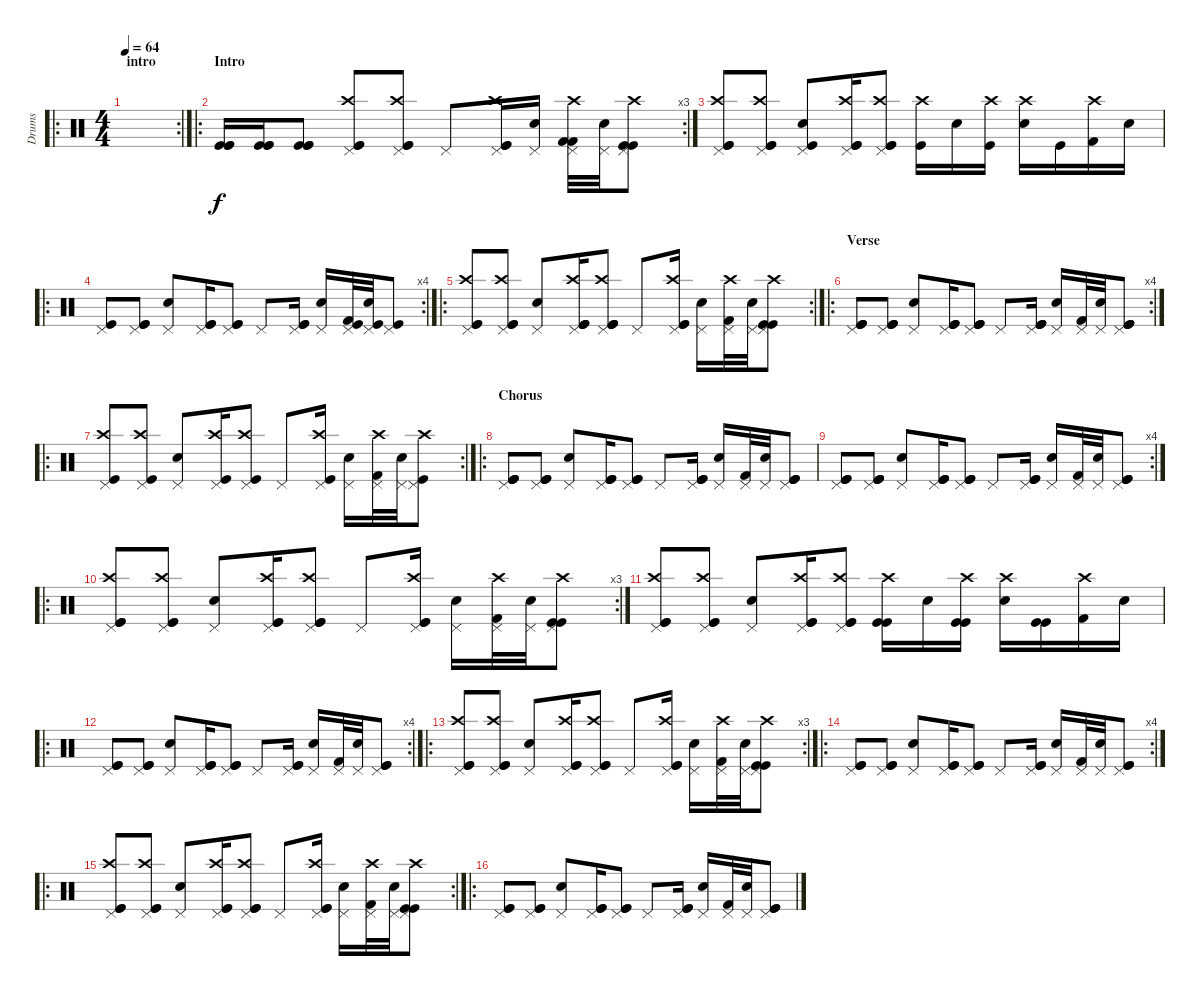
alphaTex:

\track ("Drums" "Drums") {instrument percussion}
\staff {score}
\articulation defaults
\ro
\rc 2
\ts (4 4)
\section ("" "intro")
\tempo 64
\clef neutral
\ks c
|
\ro
\rc 3
\section ("" "Intro")
("Kick (hit)" "Kick (hit)" "Kick (hit)").16 ("Kick (hit)" "Kick (hit)" "Kick (hit)").16 ("Kick (hit)" "Kick (hit)" "Kick (hit)").8 ("Kick (hit)" "Kick (hit)" "Crash high (hit)" "Pedal Hi-Hat (hit)").8 ("Kick (hit)" "Kick (hit)" "Crash high (hit)" "Pedal Hi-Hat (hit)").8 "Pedal Hi-Hat (hit)".8 ("Kick (hit)" "Kick (hit)" "Crash high (hit)" "Pedal Hi-Hat (hit)").16 ("Snare (hit) 2" "Pedal Hi-Hat (hit)").16 ("Kick (hit) 2" "Kick (hit) 2" "Crash high (hit)" "Pedal Hi-Hat (hit)").32 ("Snare (hit) 2" "Pedal Hi-Hat (hit)").32 ("Kick (hit)" "Kick (hit)" "Crash high (hit)" "Pedal Hi-Hat (hit)").8 |
("Kick (hit)" "Crash high (hit)" "Kick (hit)" "Pedal Hi-Hat (hit)").8 ("Kick (hit)" "Crash high (hit)" "Kick (hit)" "Pedal Hi-Hat (hit)").8 ("Snare (hit) 2" "Kick (hit)" "Pedal Hi-Hat (hit)").8 ("Kick (hit)" "Crash high (hit)" "Kick (hit)" "Pedal Hi-Hat (hit)").16 ("Kick (hit)" "Crash high (hit)" "Kick (hit)" "Pedal Hi-Hat (hit)").8 ("Kick (hit)" "Crash high (hit)").16 "Snare (hit) 2".16 ("Kick (hit)" "Crash high (hit)").16 ("Snare (hit) 2" "Crash high (hit)").16 "Kick (hit)".16 ("Kick (hit) 2" "Crash high (hit)").16 "Snare (hit) 2".16 |
\ro
\rc 4
("Kick (hit)" "Pedal Hi-Hat (hit)").8 ("Kick (hit)" "Kick (hit)" "Pedal Hi-Hat (hit)").8 ("Snare (hit) 2" "Pedal Hi-Hat (hit)").8 ("Kick (hit)" "Kick (hit)" "Pedal Hi-Hat (hit)").16 ("Kick (hit)" "Kick (hit)" "Pedal Hi-Hat (hit)").8 "Pedal Hi-Hat (hit)".8 ("Kick (hit)" "Kick (hit)" "Pedal Hi-Hat (hit)").16 ("Snare (hit) 2" "Pedal Hi-Hat (hit)").16 ("Kick (hit) 2" "Kick (hit)" "Pedal Hi-Hat (hit)").32 ("Snare (hit) 2" "Kick (hit)" "Pedal Hi-Hat (hit)").32 ("Kick (hit)" "Pedal Hi-Hat (hit)").8 |
\ro
\rc 2
("Kick (hit)" "Crash high (hit)" "Kick (hit)" "Pedal Hi-Hat (hit)").8 ("Kick (hit)" "Crash high (hit)" "Kick (hit)" "Pedal Hi-Hat (hit)").8 ("Snare (hit) 2" "Pedal Hi-Hat (hit)").8 ("Kick (hit)" "Kick (hit)" "Crash high (hit)" "Kick (hit)" "Pedal Hi-Hat (hit)").16 ("Kick (hit)" "Kick (hit)" "Crash high (hit)" "Kick (hit)" "Pedal Hi-Hat (hit)").8 "Pedal Hi-Hat (hit)".8 ("Kick (hit)" "Crash high (hit)" "Kick (hit)" "Pedal Hi-Hat (hit)").16 ("Snare (hit) 2" "Pedal Hi-Hat (hit)").16 ("Kick (hit) 2" "Crash high (hit)" "Pedal Hi-Hat (hit)").32 ("Snare (hit) 2" "Pedal Hi-Hat (hit)").32 ("Kick (hit)" "Crash high (hit)" "Kick (hit)" "Pedal Hi-Hat (hit)").8 |
\ro
\rc 4
\section ("" "Verse")
("Kick (hit)" "Kick (hit)" "Kick (hit)" "Pedal Hi-Hat (hit)").8 ("Kick (hit)" "Kick (hit)" "Kick (hit)" "Pedal Hi-Hat (hit)").8 ("Snare (hit) 2" "Pedal Hi-Hat (hit)").8 ("Kick (hit)" "Kick (hit)" "Kick (hit)" "Pedal Hi-Hat (hit)").16 ("Kick (hit)" "Kick (hit)" "Kick (hit)" "Pedal Hi-Hat (hit)").8 "Pedal Hi-Hat (hit)".8 ("Kick (hit)" "Kick (hit)" "Kick (hit)" "Pedal Hi-Hat (hit)").16 ("Snare (hit) 2" "Pedal Hi-Hat (hit)").16 ("Kick (hit) 2" "Pedal Hi-Hat (hit)").32 ("Snare (hit) 2" "Pedal Hi-Hat (hit)").32 ("Kick (hit)" "Kick (hit)" "Kick (hit)" "Pedal Hi-Hat (hit)").8 |
\ro
\rc 2
("Kick (hit)" "Crash high (hit)" "Pedal Hi-Hat (hit)").8 ("Kick (hit)" "Crash high (hit)" "Pedal Hi-Hat (hit)").8 ("Snare (hit) 2" "Pedal Hi-Hat (hit)").8 ("Kick (hit)" "Crash high (hit)" "Pedal Hi-Hat (hit)").16 ("Kick (hit)" "Crash high (hit)" "Pedal Hi-Hat (hit)").8 "Pedal Hi-Hat (hit)".8 ("Kick (hit)" "Crash high (hit)" "Pedal Hi-Hat (hit)").16 ("Snare (hit) 2" "Pedal Hi-Hat (hit)").16 ("Kick (hit) 2" "Crash high (hit)" "Pedal Hi-Hat (hit)").32 ("Snare (hit) 2" "Pedal Hi-Hat (hit)").32 ("Kick (hit)" "Crash high (hit)" "Pedal Hi-Hat (hit)").8 |
\ro
\section ("" "Chorus")
("Kick (hit)" "Kick (hit)" "Kick (hit)" "Pedal Hi-Hat (hit)").8 ("Kick (hit)" "Kick (hit)" "Kick (hit)" "Pedal Hi-Hat (hit)").8 ("Snare (hit) 2" "Pedal Hi-Hat (hit)").8 ("Kick (hit)" "Kick (hit)" "Kick (hit)" "Pedal Hi-Hat (hit)").16 ("Kick (hit)" "Kick (hit)" "Kick (hit)" "Pedal Hi-Hat (hit)").8 "Pedal Hi-Hat (hit)".8 ("Kick (hit)" "Kick (hit)" "Kick (hit)" "Pedal Hi-Hat (hit)").16 ("Snare (hit) 2" "Pedal Hi-Hat (hit)").16 ("Kick (hit) 2" "Pedal Hi-Hat (hit)").32 ("Snare (hit) 2" "Pedal Hi-Hat (hit)").32 ("Kick (hit)" "Kick (hit)" "Kick (hit)" "Pedal Hi-Hat (hit)").8 |
\rc 4
("Kick (hit)" "Kick (hit)" "Kick (hit)" "Pedal Hi-Hat (hit)").8 ("Kick (hit)" "Kick (hit)" "Kick (hit)" "Pedal Hi-Hat (hit)").8 ("Snare (hit) 2" "Pedal Hi-Hat (hit)").8 ("Kick (hit)" "Kick (hit)" "Kick (hit)" "Pedal Hi-Hat (hit)").16 ("Kick (hit)" "Kick (hit)" "Kick (hit)" "Pedal Hi-Hat (hit)").8 "Pedal Hi-Hat (hit)".8 ("Kick (hit)" "Kick (hit)" "Kick (hit)" "Pedal Hi-Hat (hit)").16 ("Snare (hit) 2" "Pedal Hi-Hat (hit)").16 ("Kick (hit) 2" "Pedal Hi-Hat (hit)").32 ("Snare (hit) 2" "Pedal Hi-Hat (hit)").32 ("Kick (hit)" "Kick (hit)" "Kick (hit)" "Pedal Hi-Hat (hit)").8 |
\ro
\rc 3
("Kick (hit)" "Kick (hit)" "Crash high (hit)" "Pedal Hi-Hat (hit)").8 ("Kick (hit)" "Kick (hit)" "Crash high (hit)" "Pedal Hi-Hat (hit)").8 ("Snare (hit) 2" "Pedal Hi-Hat (hit)").8 ("Kick (hit)" "Kick (hit)" "Crash high (hit)" "Pedal Hi-Hat (hit)").16 ("Kick (hit)" "Kick (hit)" "Crash high (hit)" "Pedal Hi-Hat (hit)").8 "Pedal Hi-Hat (hit)".8 ("Kick (hit)" "Kick (hit)" "Crash high (hit)" "Pedal Hi-Hat (hit)").16 ("Snare (hit) 2" "Pedal Hi-Hat (hit)").16 ("Kick (hit) 2" "Crash high (hit)" "Pedal Hi-Hat (hit)").32 ("Snare (hit) 2" "Pedal Hi-Hat (hit)").32 ("Kick (hit)" "Kick (hit)" "Crash high (hit)" "Pedal Hi-Hat (hit)").8 |
("Kick (hit)" "Kick (hit)" "Crash high (hit)" "Pedal Hi-Hat (hit)").8 ("Kick (hit)" "Kick (hit)" "Crash high (hit)" "Pedal Hi-Hat (hit)").8 ("Snare (hit) 2" "Pedal Hi-Hat (hit)").8 ("Kick (hit)" "Kick (hit)" "Crash high (hit)" "Pedal Hi-Hat (hit)").16 ("Kick (hit)" "Kick (hit)" "Crash high (hit)" "Pedal Hi-Hat (hit)").8 ("Kick (hit)" "Kick (hit)" "Crash high (hit)").16 "Snare (hit) 2".16 ("Kick (hit)" "Kick (hit)" "Crash high (hit)").16 ("Snare (hit) 2" "Crash high (hit)").16 ("Kick (hit)" "Kick (hit)").16 ("Kick (hit) 2" "Crash high (hit)").16 "Snare (hit) 2".16 |
\ro
\rc 4
("Kick (hit)" "Kick (hit)" "Pedal Hi-Hat (hit)").8 ("Kick (hit)" "Kick (hit)" "Pedal Hi-Hat (hit)").8 ("Snare (hit) 2" "Pedal Hi-Hat (hit)").8 ("Kick (hit)" "Kick (hit)" "Pedal Hi-Hat (hit)").16 ("Kick (hit)" "Kick (hit)" "Pedal Hi-Hat (hit)").8 "Pedal Hi-Hat (hit)".8 ("Kick (hit)" "Kick (hit)" "Pedal Hi-Hat (hit)").16 ("Snare (hit) 2" "Pedal Hi-Hat (hit)").16 ("Kick (hit) 2" "Pedal Hi-Hat (hit)").32 ("Snare (hit) 2" "Pedal Hi-Hat (hit)").32 ("Kick (hit)" "Kick (hit)" "Pedal Hi-Hat (hit)").8 |
\ro
\rc 3
("Kick (hit)" "Kick (hit)" "Crash high (hit)" "Pedal Hi-Hat (hit)").8 ("Kick (hit)" "Kick (hit)" "Crash high (hit)" "Pedal Hi-Hat (hit)").8 ("Snare (hit) 2" "Pedal Hi-Hat (hit)").8 ("Kick (hit)" "Kick (hit)" "Crash high (hit)" "Pedal Hi-Hat (hit)").16 ("Kick (hit)" "Kick (hit)" "Crash high (hit)" "Pedal Hi-Hat (hit)").8 "Pedal Hi-Hat (hit)".8 ("Kick (hit)" "Kick (hit)" "Crash high (hit)" "Pedal Hi-Hat (hit)").16 ("Snare (hit) 2" "Pedal Hi-Hat (hit)").16 ("Kick (hit) 2" "Crash high (hit)" "Pedal Hi-Hat (hit)").32 ("Snare (hit) 2" "Pedal Hi-Hat (hit)").32 ("Kick (hit)" "Kick (hit)" "Crash high (hit)" "Pedal Hi-Hat (hit)").8 |
\ro
\rc 4
("Kick (hit)" "Kick (hit)" "Pedal Hi-Hat (hit)").8 ("Kick (hit)" "Kick (hit)" "Pedal Hi-Hat (hit)").8 ("Snare (hit) 2" "Pedal Hi-Hat (hit)").8 ("Kick (hit)" "Kick (hit)" "Pedal Hi-Hat (hit)").16 ("Kick (hit)" "Kick (hit)" "Pedal Hi-Hat (hit)").8 "Pedal Hi-Hat (hit)".8 ("Kick (hit)" "Kick (hit)" "Pedal Hi-Hat (hit)").16 ("Snare (hit) 2" "Pedal Hi-Hat (hit)").16 ("Kick (hit) 2" "Pedal Hi-Hat (hit)").32 ("Snare (hit) 2" "Pedal Hi-Hat (hit)").32 ("Kick (hit)" "Kick (hit)" "Pedal Hi-Hat (hit)").8 |
\ro
\rc 2
("Kick (hit)" "Kick (hit)" "Crash high (hit)" "Pedal Hi-Hat (hit)").8 ("Kick (hit)" "Kick (hit)" "Crash high (hit)" "Pedal Hi-Hat (hit)").8 ("Snare (hit) 2" "Pedal Hi-Hat (hit)").8 ("Kick (hit)" "Kick (hit)" "Crash high (hit)" "Pedal Hi-Hat (hit)").16 ("Kick (hit)" "Kick (hit)" "Crash high (hit)" "Pedal Hi-Hat (hit)").8 "Pedal Hi-Hat (hit)".8 ("Kick (hit)" "Kick (hit)" "Crash high (hit)" "Pedal Hi-Hat (hit)").16 ("Snare (hit) 2" "Pedal Hi-Hat (hit)").16 ("Kick (hit) 2" "Crash high (hit)" "Pedal Hi-Hat (hit)").32 ("Snare (hit) 2" "Pedal Hi-Hat (hit)").32 ("Kick (hit)" "Kick (hit)" "Crash high (hit)" "Pedal Hi-Hat (hit)").8 |
\ro
("Kick (hit)" "Kick (hit)" "Pedal Hi-Hat (hit)").8 ("Kick (hit)" "Kick (hit)" "Pedal Hi-Hat (hit)").8 ("Snare (hit) 2" "Pedal Hi-Hat (hit)").8 ("Kick (hit)" "Kick (hit)" "Pedal Hi-Hat (hit)").16 ("Kick (hit)" "Kick (hit)" "Pedal Hi-Hat (hit)").8 "Pedal Hi-Hat (hit)".8 ("Kick (hit)" "Kick (hit)" "Pedal Hi-Hat (hit)").16 ("Snare (hit) 2" "Pedal Hi-Hat (hit)").16 ("Kick (hit) 2" "Pedal Hi-Hat (hit)").32 ("Snare (hit) 2" "Pedal Hi-Hat (hit)").32 ("Kick (hit)" "Kick (hit)" "Pedal Hi-Hat (hit)").8
